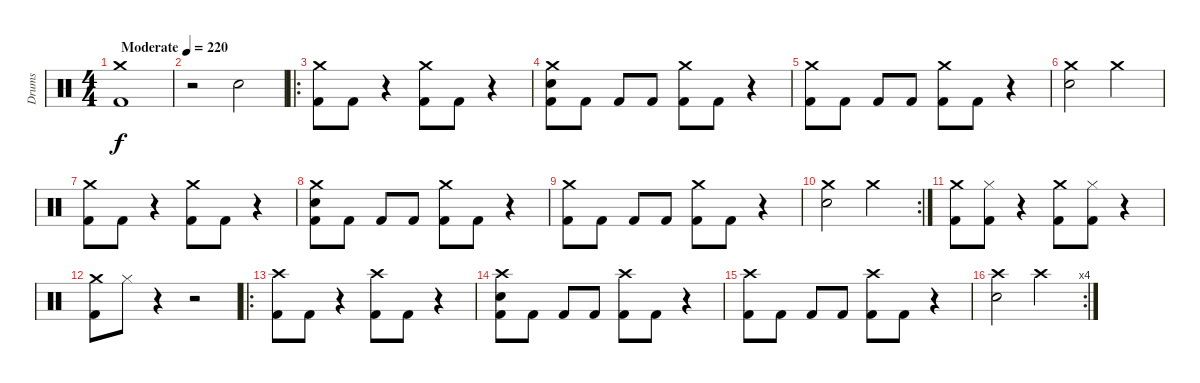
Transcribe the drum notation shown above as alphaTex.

\track ("Drums" "Drums") {instrument percussion}
\staff {score}
\articulation defaults
\ts (4 4)
\tempo (220 "Moderate")
\clef neutral
\ks c
("Crash medium (hit)" "Kick (hit) 2").1{dy f} |
r.2 "Electric Snare (hit)".2 |
\ro
("Crash medium (hit)" "Kick (hit) 2").8 "Kick (hit) 2".8 r.4 ("Crash medium (hit)" "Kick (hit) 2").8 "Kick (hit) 2".8 r.4 |
("Crash medium (hit)" "Electric Snare (hit)" "Kick (hit) 2").8 "Kick (hit) 2".8 "Kick (hit) 2".8 "Kick (hit) 2".8 ("Crash medium (hit)" "Kick (hit) 2").8 "Kick (hit) 2".8 r.4 |
("Crash medium (hit)" "Kick (hit) 2").8 "Kick (hit) 2".8 "Kick (hit) 2".8 "Kick (hit) 2".8 ("Crash medium (hit)" "Kick (hit) 2").8 "Kick (hit) 2".8 r.4 |
("Crash medium (hit)" "Electric Snare (hit)").2 "Crash medium (hit)".2 |
("Crash medium (hit)" "Kick (hit) 2").8 "Kick (hit) 2".8 r.4 ("Crash medium (hit)" "Kick (hit) 2").8 "Kick (hit) 2".8 r.4 |
("Crash medium (hit)" "Electric Snare (hit)" "Kick (hit) 2").8 "Kick (hit) 2".8 "Kick (hit) 2".8 "Kick (hit) 2".8 ("Crash medium (hit)" "Kick (hit) 2").8 "Kick (hit) 2".8 r.4 |
("Crash medium (hit)" "Kick (hit) 2").8 "Kick (hit) 2".8 "Kick (hit) 2".8 "Kick (hit) 2".8 ("Crash medium (hit)" "Kick (hit) 2").8 "Kick (hit) 2".8 r.4 |
\rc 2
("Crash medium (hit)" "Electric Snare (hit)").2 "Crash medium (hit)".2 |
("Crash medium (hit)" "Kick (hit) 2").8 ("Hi-Hat (closed)" "Kick (hit) 2").8 r.4 ("Crash medium (hit)" "Kick (hit) 2").8 ("Hi-Hat (closed)" "Kick (hit) 2").8 r.4 |
("Crash medium (hit)" "Kick (hit) 2").8 "Hi-Hat (closed)".8 r.4 r.2 |
\ro
("Crash high (hit)" "Kick (hit) 2").8 "Kick (hit) 2".8 r.4 ("Crash high (hit)" "Kick (hit) 2").8 "Kick (hit) 2".8 r.4 |
("Crash high (hit)" "Electric Snare (hit)" "Kick (hit) 2").8 "Kick (hit) 2".8 "Kick (hit) 2".8 "Kick (hit) 2".8 ("Crash high (hit)" "Kick (hit) 2").8 "Kick (hit) 2".8 r.4 |
("Crash high (hit)" "Kick (hit) 2").8 "Kick (hit) 2".8 "Kick (hit) 2".8 "Kick (hit) 2".8 ("Crash high (hit)" "Kick (hit) 2").8 "Kick (hit) 2".8 r.4 |
\rc 4
("Crash high (hit)" "Electric Snare (hit)").2 "Crash high (hit)".2
